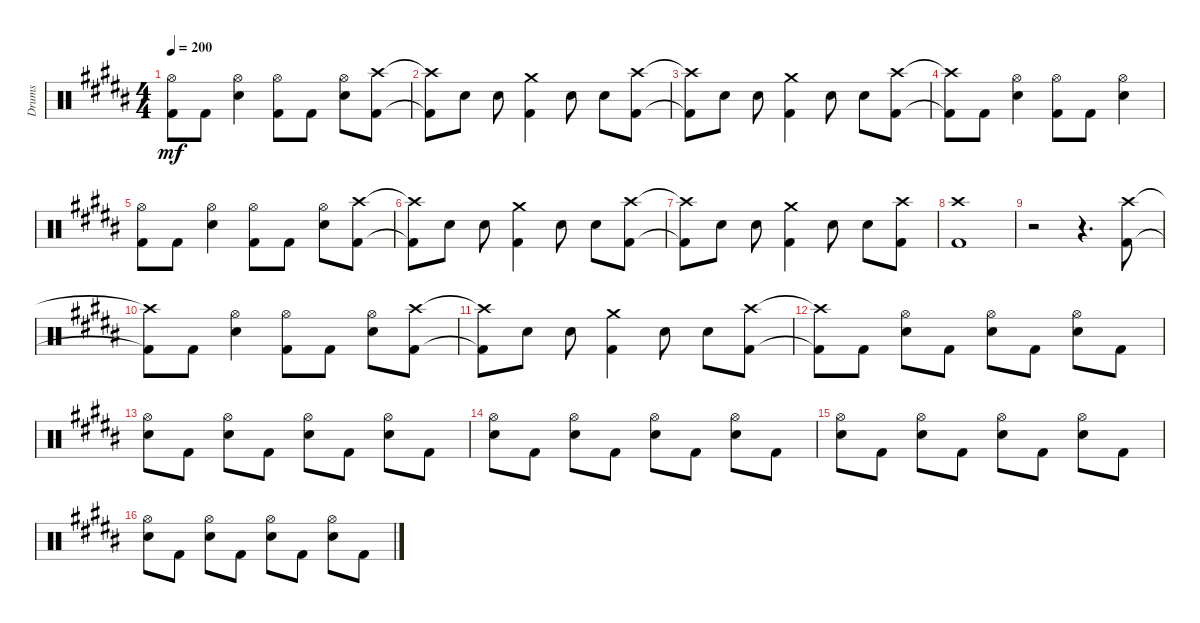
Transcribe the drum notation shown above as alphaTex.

\track ("Drums" "Drums") {instrument percussion}
\staff {score}
\articulation defaults
\ts (4 4)
\tempo 200
\clef neutral
\ks b
("Kick (hit) 2" "Hi-Hat (open)").8{dy mf} "Kick (hit) 2".8 ("Snare (hit) 2" "Hi-Hat (open)").4 ("Kick (hit) 2" "Hi-Hat (open)").8 "Kick (hit) 2".8 ("Snare (hit) 2" "Hi-Hat (open)").8 ("Kick (hit) 2" "Crash high (hit)").8 |
("Kick (hit) 2"{t} "Crash high (hit)"{t}).8 "Snare (hit) 2".8 "Snare (hit) 2".8 ("Kick (hit) 2" "Crash medium (hit)").4 "Snare (hit) 2".8 "Snare (hit) 2".8 ("Kick (hit) 2" "Crash high (hit)").8 |
("Kick (hit) 2"{t} "Crash high (hit)"{t}).8 "Snare (hit) 2".8 "Snare (hit) 2".8 ("Kick (hit) 2" "Crash medium (hit)").4 "Snare (hit) 2".8 "Snare (hit) 2".8 ("Kick (hit) 2" "Crash high (hit)").8 |
("Kick (hit) 2"{t} "Crash high (hit)"{t}).8 "Kick (hit) 2".8 ("Snare (hit) 2" "Hi-Hat (open)").4 ("Kick (hit) 2" "Hi-Hat (open)").8 "Kick (hit) 2".8 ("Snare (hit) 2" "Hi-Hat (open)").4 |
("Kick (hit) 2" "Hi-Hat (open)").8 "Kick (hit) 2".8 ("Snare (hit) 2" "Hi-Hat (open)").4 ("Kick (hit) 2" "Hi-Hat (open)").8 "Kick (hit) 2".8 ("Snare (hit) 2" "Hi-Hat (open)").8 ("Kick (hit) 2" "Crash high (hit)").8 |
("Kick (hit) 2"{t} "Crash high (hit)"{t}).8 "Snare (hit) 2".8 "Snare (hit) 2".8 ("Kick (hit) 2" "Crash medium (hit)").4 "Snare (hit) 2".8 "Snare (hit) 2".8 ("Kick (hit) 2" "Crash high (hit)").8 |
("Kick (hit) 2"{t} "Crash high (hit)"{t}).8 "Snare (hit) 2".8 "Snare (hit) 2".8 ("Kick (hit) 2" "Crash medium (hit)").4 "Snare (hit) 2".8 "Snare (hit) 2".8 ("Kick (hit) 2" "Crash high (hit)").8 |
("Kick (hit) 2" "Crash high (hit)").1 |
r.2 r.4{d} ("Kick (hit) 2" "Crash high (hit)").8 |
("Kick (hit) 2"{t} "Crash high (hit)"{t}).8 "Kick (hit) 2".8 ("Snare (hit) 2" "Hi-Hat (open)").4 ("Kick (hit) 2" "Hi-Hat (open)").8 "Kick (hit) 2".8 ("Snare (hit) 2" "Hi-Hat (open)").8 ("Kick (hit) 2" "Crash high (hit)").8 |
("Kick (hit) 2"{t} "Crash high (hit)"{t}).8 "Snare (hit) 2".8 "Snare (hit) 2".8 ("Kick (hit) 2" "Crash medium (hit)").4 "Snare (hit) 2".8 "Snare (hit) 2".8 ("Kick (hit) 2" "Crash high (hit)").8 |
("Kick (hit) 2"{t} "Crash high (hit)"{t}).8 "Kick (hit) 2".8 ("Snare (hit) 2" "Hi-Hat (open)").8 "Kick (hit) 2".8 ("Snare (hit) 2" "Hi-Hat (open)").8 "Kick (hit) 2".8 ("Snare (hit) 2" "Hi-Hat (open)").8 "Kick (hit) 2".8 |
("Snare (hit) 2" "Hi-Hat (open)").8 "Kick (hit) 2".8 ("Snare (hit) 2" "Hi-Hat (open)").8 "Kick (hit) 2".8 ("Snare (hit) 2" "Hi-Hat (open)").8 "Kick (hit) 2".8 ("Snare (hit) 2" "Hi-Hat (open)").8 "Kick (hit) 2".8 |
("Snare (hit) 2" "Hi-Hat (open)").8 "Kick (hit) 2".8 ("Snare (hit) 2" "Hi-Hat (open)").8 "Kick (hit) 2".8 ("Snare (hit) 2" "Hi-Hat (open)").8 "Kick (hit) 2".8 ("Snare (hit) 2" "Hi-Hat (open)").8 "Kick (hit) 2".8 |
("Snare (hit) 2" "Hi-Hat (open)").8 "Kick (hit) 2".8 ("Snare (hit) 2" "Hi-Hat (open)").8 "Kick (hit) 2".8 ("Snare (hit) 2" "Hi-Hat (open)").8 "Kick (hit) 2".8 ("Snare (hit) 2" "Hi-Hat (open)").8 "Kick (hit) 2".8 |
("Snare (hit) 2" "Hi-Hat (open)").8 "Kick (hit) 2".8 ("Snare (hit) 2" "Hi-Hat (open)").8 "Kick (hit) 2".8 ("Snare (hit) 2" "Hi-Hat (open)").8 "Kick (hit) 2".8 ("Snare (hit) 2" "Hi-Hat (open)").8 "Kick (hit) 2".8
